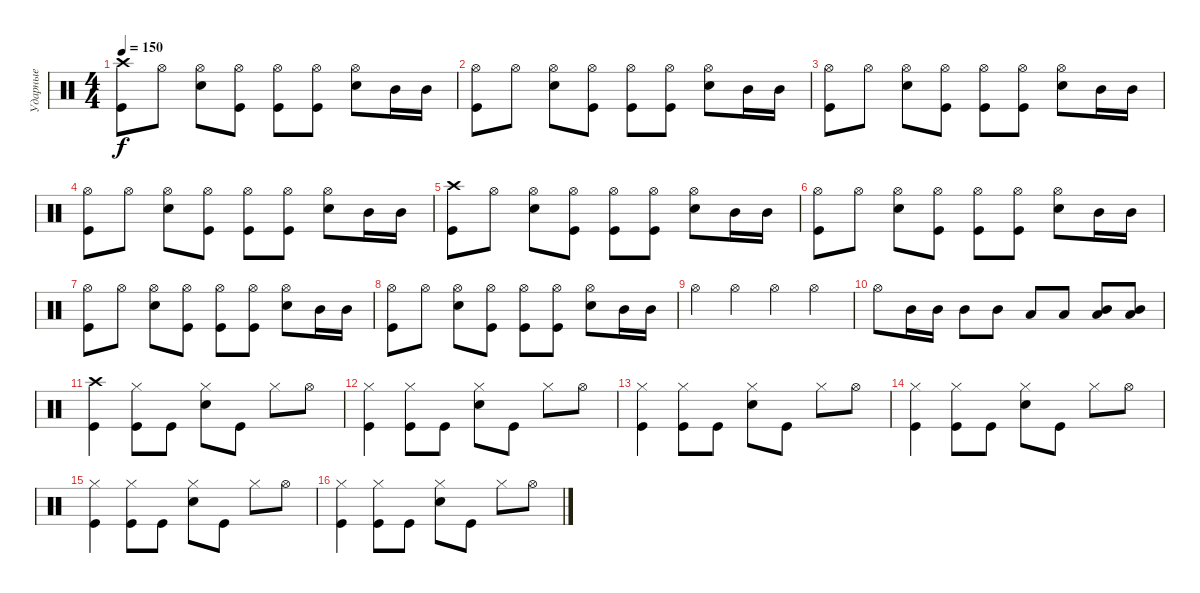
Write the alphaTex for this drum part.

\track ("Ударные" "Ударные") {instrument percussion}
\staff {score}
\articulation defaults
\ts (4 4)
\tempo 150
\clef neutral
\ks c
("Crash high (hit)" "Kick (hit)").8{dy f} "Hi-Hat (open)".8 ("Hi-Hat (open)" "Snare (hit) 2").8 ("Hi-Hat (open)" "Kick (hit)").8 ("Hi-Hat (open)" "Kick (hit)").8 ("Hi-Hat (open)" "Kick (hit)").8 ("Hi-Hat (open)" "Snare (hit) 2").8 "Mid Tom (hit)".16 "Mid Tom (hit)".16 |
("Hi-Hat (open)" "Kick (hit)").8 "Hi-Hat (open)".8 ("Hi-Hat (open)" "Snare (hit) 2").8 ("Hi-Hat (open)" "Kick (hit)").8 ("Hi-Hat (open)" "Kick (hit)").8 ("Hi-Hat (open)" "Kick (hit)").8 ("Hi-Hat (open)" "Snare (hit) 2").8 "Mid Tom (hit)".16 "Mid Tom (hit)".16 |
("Hi-Hat (open)" "Kick (hit)").8 "Hi-Hat (open)".8 ("Hi-Hat (open)" "Snare (hit) 2").8 ("Hi-Hat (open)" "Kick (hit)").8 ("Hi-Hat (open)" "Kick (hit)").8 ("Hi-Hat (open)" "Kick (hit)").8 ("Hi-Hat (open)" "Snare (hit) 2").8 "Mid Tom (hit)".16 "Mid Tom (hit)".16 |
("Hi-Hat (open)" "Kick (hit)").8 "Hi-Hat (open)".8 ("Hi-Hat (open)" "Snare (hit) 2").8 ("Hi-Hat (open)" "Kick (hit)").8 ("Hi-Hat (open)" "Kick (hit)").8 ("Hi-Hat (open)" "Kick (hit)").8 ("Hi-Hat (open)" "Snare (hit) 2").8 "Mid Tom (hit)".16 "Mid Tom (hit)".16 |
("Crash high (hit)" "Kick (hit)").8 "Hi-Hat (open)".8 ("Hi-Hat (open)" "Snare (hit) 2").8 ("Hi-Hat (open)" "Kick (hit)").8 ("Hi-Hat (open)" "Kick (hit)").8 ("Hi-Hat (open)" "Kick (hit)").8 ("Hi-Hat (open)" "Snare (hit) 2").8 "Mid Tom (hit)".16 "Mid Tom (hit)".16 |
("Hi-Hat (open)" "Kick (hit)").8 "Hi-Hat (open)".8 ("Hi-Hat (open)" "Snare (hit) 2").8 ("Hi-Hat (open)" "Kick (hit)").8 ("Hi-Hat (open)" "Kick (hit)").8 ("Hi-Hat (open)" "Kick (hit)").8 ("Hi-Hat (open)" "Snare (hit) 2").8 "Mid Tom (hit)".16 "Mid Tom (hit)".16 |
("Hi-Hat (open)" "Kick (hit)").8 "Hi-Hat (open)".8 ("Hi-Hat (open)" "Snare (hit) 2").8 ("Hi-Hat (open)" "Kick (hit)").8 ("Hi-Hat (open)" "Kick (hit)").8 ("Hi-Hat (open)" "Kick (hit)").8 ("Hi-Hat (open)" "Snare (hit) 2").8 "Mid Tom (hit)".16 "Mid Tom (hit)".16 |
("Hi-Hat (open)" "Kick (hit)").8 "Hi-Hat (open)".8 ("Hi-Hat (open)" "Snare (hit) 2").8 ("Hi-Hat (open)" "Kick (hit)").8 ("Hi-Hat (open)" "Kick (hit)").8 ("Hi-Hat (open)" "Kick (hit)").8 ("Hi-Hat (open)" "Snare (hit) 2").8 "Mid Tom (hit)".16 "Mid Tom (hit)".16 |
"Hi-Hat (open)".4 "Hi-Hat (open)".4 "Hi-Hat (open)".4 "Hi-Hat (open)".4 |
"Hi-Hat (open)".8 "Mid Tom (hit)".16 "Mid Tom (hit)".16 "Mid Tom (hit)".8 "Mid Tom (hit)".8 "Low Tom (hit)".8 "Low Tom (hit)".8 ("Low Tom (hit)" "Mid Tom (hit)").8 ("Low Tom (hit)" "Mid Tom (hit)").8 |
("Crash high (hit)" "Kick (hit)").4 ("Kick (hit)" "Hi-Hat (closed)").8 "Kick (hit)".8 ("Snare (hit) 2" "Hi-Hat (closed)").8 "Kick (hit)".8 "Hi-Hat (closed)".8 "Hi-Hat (open)".8 |
("Hi-Hat (closed)" "Kick (hit)").4 ("Kick (hit)" "Hi-Hat (closed)").8 "Kick (hit)".8 ("Snare (hit) 2" "Hi-Hat (closed)").8 "Kick (hit)".8 "Hi-Hat (closed)".8 "Hi-Hat (open)".8 |
("Hi-Hat (closed)" "Kick (hit)").4 ("Kick (hit)" "Hi-Hat (closed)").8 "Kick (hit)".8 ("Snare (hit) 2" "Hi-Hat (closed)").8 "Kick (hit)".8 "Hi-Hat (closed)".8 "Hi-Hat (open)".8 |
("Hi-Hat (closed)" "Kick (hit)").4 ("Kick (hit)" "Hi-Hat (closed)").8 "Kick (hit)".8 ("Snare (hit) 2" "Hi-Hat (closed)").8 "Kick (hit)".8 "Hi-Hat (closed)".8 "Hi-Hat (open)".8 |
("Hi-Hat (closed)" "Kick (hit)").4 ("Kick (hit)" "Hi-Hat (closed)").8 "Kick (hit)".8 ("Snare (hit) 2" "Hi-Hat (closed)").8 "Kick (hit)".8 "Hi-Hat (closed)".8 "Hi-Hat (open)".8 |
("Hi-Hat (closed)" "Kick (hit)").4 ("Kick (hit)" "Hi-Hat (closed)").8 "Kick (hit)".8 ("Snare (hit) 2" "Hi-Hat (closed)").8 "Kick (hit)".8 "Hi-Hat (closed)".8 "Hi-Hat (open)".8
